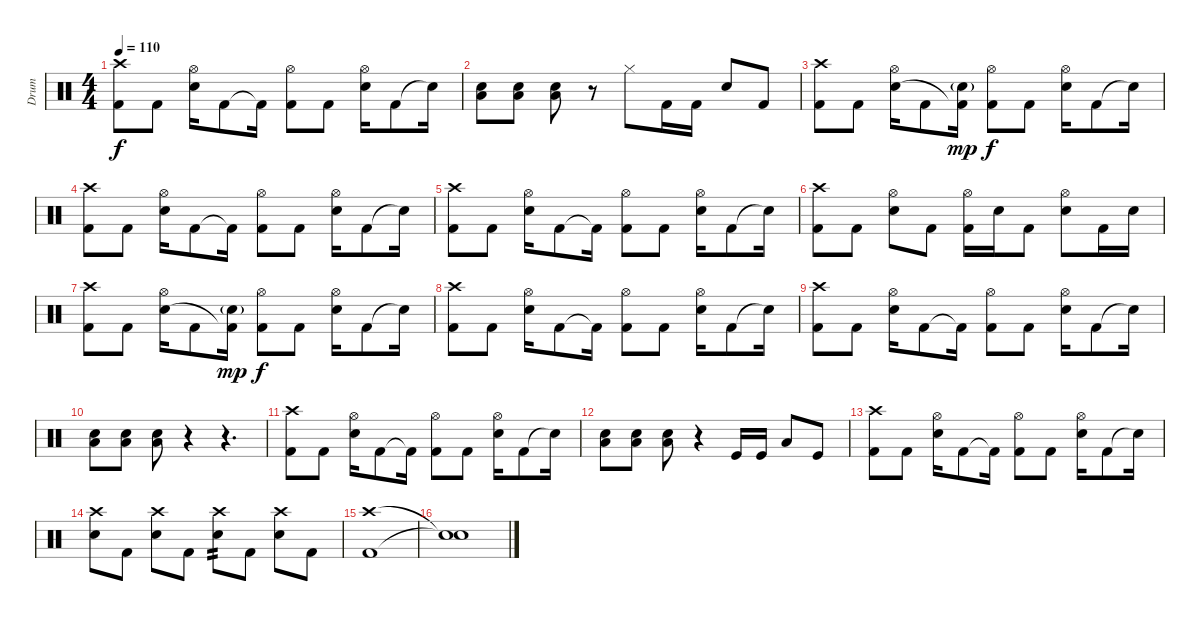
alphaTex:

\track ("Drum" "Drum") {instrument percussion}
\staff {score}
\articulation defaults
\ts (4 4)
\tempo 110
\clef neutral
\ks c
("Crash high (hit)" "Kick (hit) 2").8{dy f} "Kick (hit) 2".8 ("Hi-Hat (open)" "Electric Snare (hit)").16 "Kick (hit) 2".8 "Kick (hit) 2"{t}.16 ("Hi-Hat (open)" "Kick (hit) 2").8 "Kick (hit) 2".8 ("Hi-Hat (open)" "Electric Snare (hit)").16 "Kick (hit) 2".8 "Snare (hit)"{t}.16 |
("Low Tom (hit)" "Electric Snare (hit)").8 ("Low Tom (hit)" "Electric Snare (hit)").8 ("Low Tom (hit)" "Electric Snare (hit)").8 r.8 "Hi-Hat (closed)".8 "Kick (hit) 2".16 "Kick (hit) 2".16 "Electric Snare (hit)".8 "Kick (hit) 2".8 |
("Crash high (hit)" "Kick (hit) 2").8{volume 10} "Kick (hit) 2".8 ("Hi-Hat (open)" "Electric Snare (hit)").16 "Kick (hit) 2".8 ("Electric Snare (hit)"{g} "Kick (hit) 2"{t}).16{dy mp} ("Hi-Hat (open)" "Kick (hit) 2").8{dy f} "Kick (hit) 2".8 ("Hi-Hat (open)" "Electric Snare (hit)").16 "Kick (hit) 2".8 "Snare (hit)"{t}.16 |
("Crash high (hit)" "Kick (hit) 2").8 "Kick (hit) 2".8 ("Hi-Hat (open)" "Electric Snare (hit)").16 "Kick (hit) 2".8 "Kick (hit) 2"{t}.16 ("Hi-Hat (open)" "Kick (hit) 2").8 "Kick (hit) 2".8 ("Hi-Hat (open)" "Electric Snare (hit)").16 "Kick (hit) 2".8 "Snare (hit)"{t}.16 |
("Crash high (hit)" "Kick (hit) 2").8 "Kick (hit) 2".8 ("Hi-Hat (open)" "Electric Snare (hit)").16 "Kick (hit) 2".8 "Kick (hit) 2"{t}.16 ("Hi-Hat (open)" "Kick (hit) 2").8 "Kick (hit) 2".8 ("Hi-Hat (open)" "Electric Snare (hit)").16 "Kick (hit) 2".8 "Snare (hit)"{t}.16 |
("Crash high (hit)" "Kick (hit) 2").8 "Kick (hit) 2".8 ("Hi-Hat (open)" "Electric Snare (hit)").8 "Kick (hit) 2".8 ("Hi-Hat (open)" "Kick (hit) 2").16 "Electric Snare (hit)".16 "Kick (hit) 2".8 ("Hi-Hat (open)" "Electric Snare (hit)").8 "Kick (hit) 2".16 "Electric Snare (hit)".16 |
("Crash high (hit)" "Kick (hit) 2").8{volume 12} "Kick (hit) 2".8 ("Hi-Hat (open)" "Electric Snare (hit)").16 "Kick (hit) 2".8 ("Electric Snare (hit)"{g} "Kick (hit) 2"{t}).16{dy mp} ("Hi-Hat (open)" "Kick (hit) 2").8{dy f} "Kick (hit) 2".8 ("Hi-Hat (open)" "Electric Snare (hit)").16 "Kick (hit) 2".8 "Snare (hit)"{t}.16 |
("Crash high (hit)" "Kick (hit) 2").8 "Kick (hit) 2".8 ("Hi-Hat (open)" "Electric Snare (hit)").16 "Kick (hit) 2".8 "Kick (hit) 2"{t}.16 ("Hi-Hat (open)" "Kick (hit) 2").8 "Kick (hit) 2".8 ("Hi-Hat (open)" "Electric Snare (hit)").16 "Kick (hit) 2".8 "Snare (hit)"{t}.16 |
("Crash high (hit)" "Kick (hit) 2").8 "Kick (hit) 2".8 ("Hi-Hat (open)" "Electric Snare (hit)").16 "Kick (hit) 2".8 "Kick (hit) 2"{t}.16 ("Hi-Hat (open)" "Kick (hit) 2").8 "Kick (hit) 2".8 ("Hi-Hat (open)" "Electric Snare (hit)").16 "Kick (hit) 2".8 "Snare (hit)"{t}.16 |
("Electric Snare (hit)" "Low Tom (hit)").8 ("Electric Snare (hit)" "Low Tom (hit)").8 ("Electric Snare (hit)" "Low Tom (hit)").8 r.4 r.4{d} |
("Crash high (hit)" "Kick (hit) 2").8 "Kick (hit) 2".8 ("Hi-Hat (open)" "Electric Snare (hit)").16 "Kick (hit) 2".8 "Kick (hit) 2"{t}.16 ("Hi-Hat (open)" "Kick (hit) 2").8 "Kick (hit) 2".8 ("Hi-Hat (open)" "Electric Snare (hit)").16 "Kick (hit) 2".8 "Snare (hit)"{t}.16 |
("Electric Snare (hit)" "Low Tom (hit)").8 ("Electric Snare (hit)" "Low Tom (hit)").8 ("Electric Snare (hit)" "Low Tom (hit)").8 r.4 "Kick (hit)".16 "Kick (hit)".16 "Low Floor Tom (hit)".8 "Kick (hit)".8 |
("Crash high (hit)" "Kick (hit) 2").8 "Kick (hit) 2".8 ("Hi-Hat (open)" "Electric Snare (hit)").16 "Kick (hit) 2".8 "Kick (hit) 2"{t}.16 ("Hi-Hat (open)" "Kick (hit) 2").8 "Kick (hit) 2".8 ("Hi-Hat (open)" "Electric Snare (hit)").16 "Kick (hit) 2".8 "Snare (hit)"{t}.16 |
("Crash high (hit)" "Electric Snare (hit)").8 "Kick (hit) 2".8 ("Crash high (hit)" "Electric Snare (hit)").8 "Kick (hit) 2".8 ("Crash high (hit)" "Electric Snare (hit)").8{tp 2} "Kick (hit) 2".8 ("Crash high (hit)" "Electric Snare (hit)").8 "Kick (hit) 2".8 |
("Crash high (hit)" "Kick (hit) 2").1 |
("Snare (hit)"{t} "Snare (hit)"{t}).1
